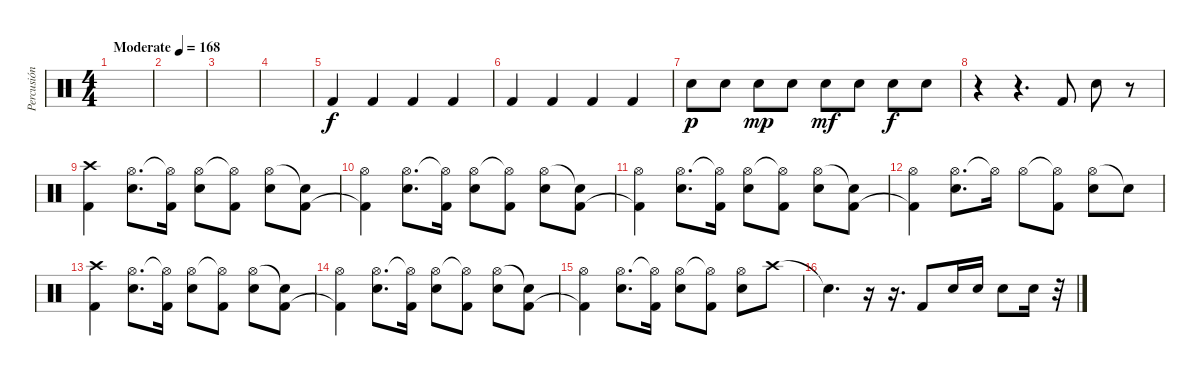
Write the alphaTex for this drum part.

\track ("Percusión" "Percusión") {instrument percussion}
\staff {score}
\articulation defaults
\ts (4 4)
\tempo (168 "Moderate")
\clef neutral
\ks c
|
|
|
|
"Kick (hit) 2".4 "Kick (hit) 2".4 "Kick (hit) 2".4 "Kick (hit) 2".4 |
"Kick (hit) 2".4 "Kick (hit) 2".4 "Kick (hit) 2".4 "Kick (hit) 2".4 |
"Snare (hit) 2".8{dy p} "Snare (hit) 2".8 "Snare (hit) 2".8{dy mp} "Snare (hit) 2".8 "Snare (hit) 2".8{dy mf} "Snare (hit) 2".8 "Snare (hit) 2".8{dy f} "Snare (hit) 2".8 |
r.4 r.4{d} "Kick (hit) 2".8 "Snare (hit) 2".8 r.8 |
("Crash high (hit)" "Kick (hit) 2").4 ("Hi-Hat (open)" "Snare (hit) 2").8{d} ("Hi-Hat (open)"{t} "Kick (hit) 2").16 ("Hi-Hat (open)" "Snare (hit) 2").8 ("Hi-Hat (open)"{t} "Kick (hit) 2").8 ("Hi-Hat (open)" "Snare (hit) 2").8 ("Snare (hit)"{t} "Kick (hit) 2").8 |
("Hi-Hat (open)" "Kick (hit) 2"{t}).4 ("Hi-Hat (open)" "Snare (hit) 2").8{d} ("Hi-Hat (open)"{t} "Kick (hit) 2").16 ("Hi-Hat (open)" "Snare (hit) 2").8 ("Hi-Hat (open)"{t} "Kick (hit) 2").8 ("Hi-Hat (open)" "Snare (hit) 2").8 ("Snare (hit)"{t} "Kick (hit) 2").8 |
("Hi-Hat (open)" "Kick (hit) 2"{t}).4 ("Hi-Hat (open)" "Snare (hit) 2").8{d} ("Hi-Hat (open)"{t} "Kick (hit) 2").16 ("Hi-Hat (open)" "Snare (hit) 2").8 ("Hi-Hat (open)"{t} "Kick (hit) 2").8 ("Hi-Hat (open)" "Snare (hit) 2").8 ("Snare (hit)"{t} "Kick (hit) 2").8 |
("Hi-Hat (open)" "Kick (hit) 2"{t}).4 ("Hi-Hat (open)" "Snare (hit) 2").8{d} "Hi-Hat (open)"{t}.16 "Hi-Hat (open)".8 ("Hi-Hat (open)"{t} "Kick (hit) 2").8 ("Hi-Hat (open)" "Snare (hit) 2").8 "Snare (hit)"{t}.8 |
("Crash high (hit)" "Kick (hit) 2").4 ("Hi-Hat (open)" "Snare (hit) 2").8{d} ("Hi-Hat (open)"{t} "Kick (hit) 2").16 ("Hi-Hat (open)" "Snare (hit) 2").8 ("Hi-Hat (open)"{t} "Kick (hit) 2").8 ("Hi-Hat (open)" "Snare (hit) 2").8 ("Snare (hit)"{t} "Kick (hit) 2").8 |
("Hi-Hat (open)" "Kick (hit) 2"{t}).4 ("Hi-Hat (open)" "Snare (hit) 2").8{d} ("Hi-Hat (open)"{t} "Kick (hit) 2").16 ("Hi-Hat (open)" "Snare (hit) 2").8 ("Hi-Hat (open)"{t} "Kick (hit) 2").8 ("Hi-Hat (open)" "Snare (hit) 2").8 ("Snare (hit)"{t} "Kick (hit) 2").8 |
("Hi-Hat (open)" "Kick (hit) 2"{t}).4 ("Hi-Hat (open)" "Snare (hit) 2").8{d} ("Hi-Hat (open)"{t} "Kick (hit) 2").16 ("Hi-Hat (open)" "Snare (hit) 2").8 ("Hi-Hat (open)"{t} "Kick (hit) 2").8 ("Hi-Hat (open)" "Snare (hit) 2").8 "Crash high (hit)".8 |
"Snare (hit)"{t}.4{d} r.16 r.16{d} "Kick (hit) 2".8 "Snare (hit) 2".16 "Snare (hit) 2".16 "Snare (hit) 2".8 "Snare (hit) 2".16 r.32
